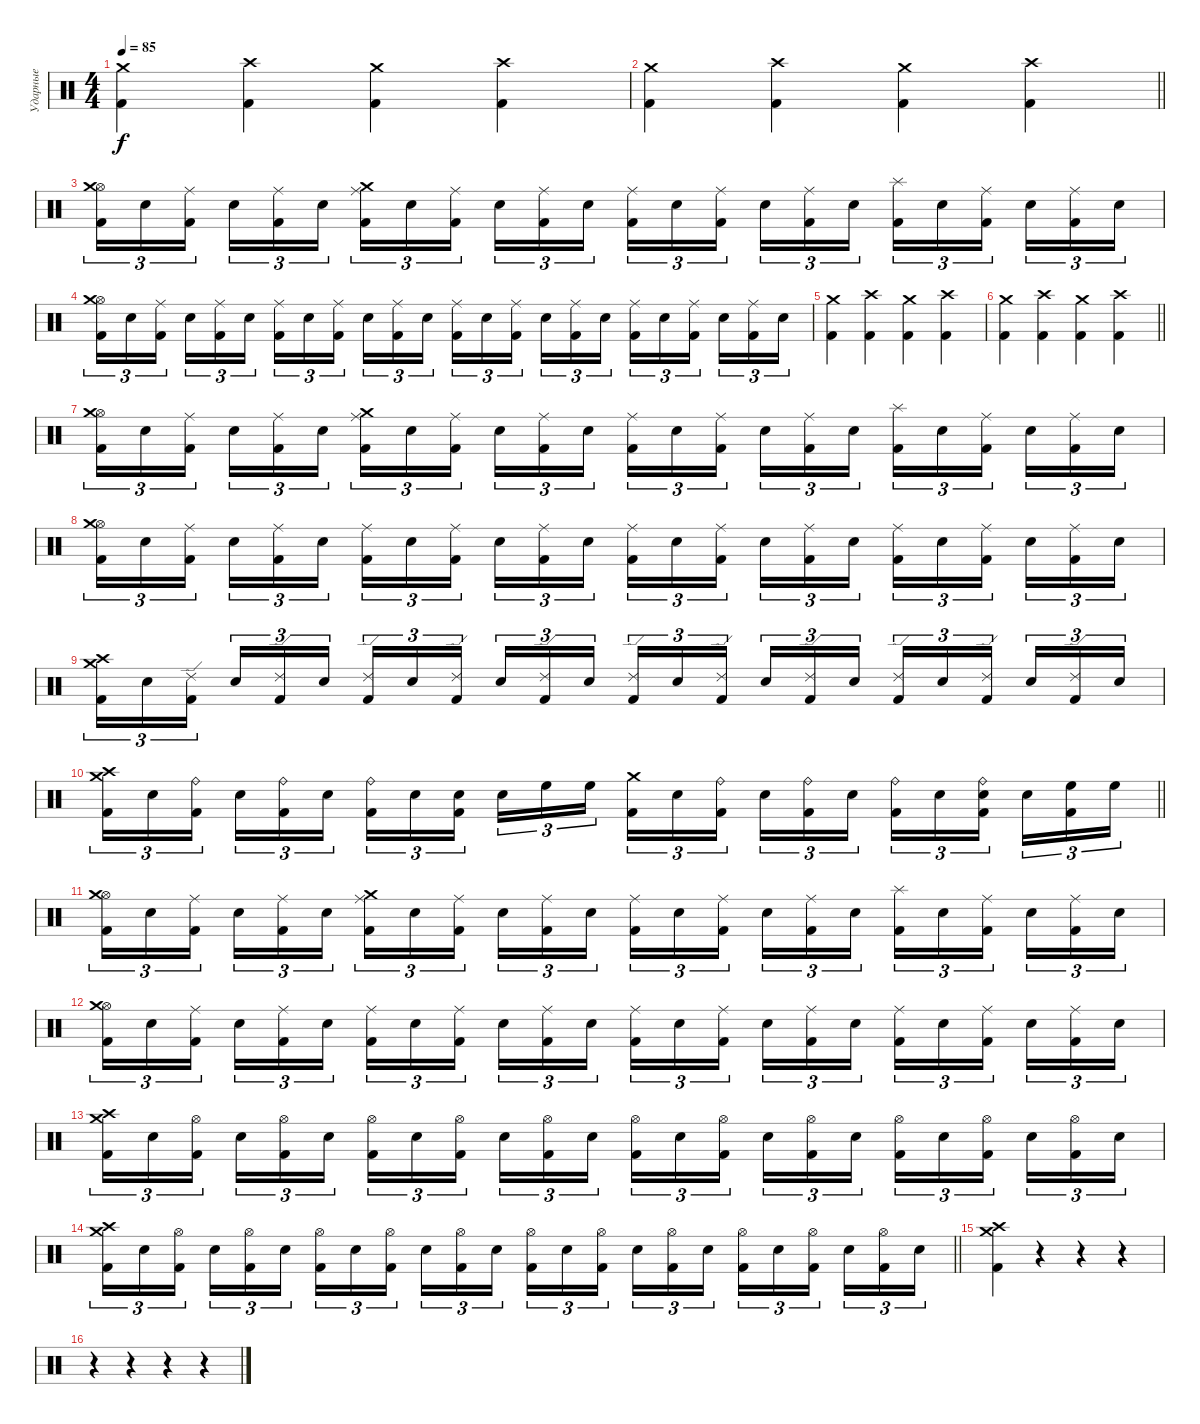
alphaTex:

\track ("Ударные" "Ударные") {mute instrument percussion}
\staff {score}
\articulation defaults
\ts (4 4)
\tempo 85
\clef neutral
\ks c
("Crash medium (hit)" "Kick (hit) 2").4{dy f} ("Crash high (hit)" "Kick (hit) 2").4 ("Crash medium (hit)" "Kick (hit) 2").4 ("Crash high (hit)" "Kick (hit) 2").4 |
\barLineRight lightlight
("Crash medium (hit)" "Kick (hit) 2").4 ("Crash high (hit)" "Kick (hit) 2").4 ("Crash medium (hit)" "Kick (hit) 2").4 ("Crash high (hit)" "Kick (hit) 2").4 |
("Hi-Hat (open)" "Crash medium (hit)" "Kick (hit) 2").16{tu (3 2)} "Electric Snare (hit)".16{tu (3 2)} ("Ride (middle)" "Kick (hit) 2").16{tu (3 2) beam splitsecondary} "Electric Snare (hit)".16{tu (3 2)} ("Ride (middle)" "Kick (hit) 2").16{tu (3 2)} "Electric Snare (hit)".16{tu (3 2)} ("Ride (middle)" "Crash medium (hit)" "Kick (hit) 2").16{tu (3 2)} "Electric Snare (hit)".16{tu (3 2)} ("Ride (middle)" "Kick (hit) 2").16{tu (3 2) beam splitsecondary} "Electric Snare (hit)".16{tu (3 2)} ("Ride (middle)" "Kick (hit) 2").16{tu (3 2)} "Electric Snare (hit)".16{tu (3 2)} ("Ride (middle)" "Kick (hit) 2").16{tu (3 2)} "Electric Snare (hit)".16{tu (3 2)} ("Ride (middle)" "Kick (hit) 2").16{tu (3 2) beam splitsecondary} "Electric Snare (hit)".16{tu (3 2)} ("Ride (middle)" "Kick (hit) 2").16{tu (3 2)} "Electric Snare (hit)".16{tu (3 2)} ("Splash (hit)" "Kick (hit) 2").16{tu (3 2)} "Electric Snare (hit)".16{tu (3 2)} ("Ride (middle)" "Kick (hit) 2").16{tu (3 2) beam splitsecondary} "Electric Snare (hit)".16{tu (3 2)} ("Ride (middle)" "Kick (hit) 2").16{tu (3 2)} "Electric Snare (hit)".16{tu (3 2)} |
("Hi-Hat (open)" "Crash medium (hit)" "Kick (hit) 2").16{tu (3 2)} "Electric Snare (hit)".16{tu (3 2)} ("Ride (middle)" "Kick (hit) 2").16{tu (3 2) beam splitsecondary} "Electric Snare (hit)".16{tu (3 2)} ("Ride (middle)" "Kick (hit) 2").16{tu (3 2)} "Electric Snare (hit)".16{tu (3 2)} ("Ride (middle)" "Kick (hit) 2").16{tu (3 2)} "Electric Snare (hit)".16{tu (3 2)} ("Ride (middle)" "Kick (hit) 2").16{tu (3 2) beam splitsecondary} "Electric Snare (hit)".16{tu (3 2)} ("Ride (middle)" "Kick (hit) 2").16{tu (3 2)} "Electric Snare (hit)".16{tu (3 2)} ("Ride (middle)" "Kick (hit) 2").16{tu (3 2)} "Electric Snare (hit)".16{tu (3 2)} ("Ride (middle)" "Kick (hit) 2").16{tu (3 2) beam splitsecondary} "Electric Snare (hit)".16{tu (3 2)} ("Ride (middle)" "Kick (hit) 2").16{tu (3 2)} "Electric Snare (hit)".16{tu (3 2)} ("Ride (middle)" "Kick (hit) 2").16{tu (3 2)} "Electric Snare (hit)".16{tu (3 2)} ("Ride (middle)" "Kick (hit) 2").16{tu (3 2) beam splitsecondary} "Electric Snare (hit)".16{tu (3 2)} ("Ride (middle)" "Kick (hit) 2").16{tu (3 2)} "Electric Snare (hit)".16{tu (3 2)} |
("Crash medium (hit)" "Kick (hit) 2").4 ("Crash high (hit)" "Kick (hit) 2").4 ("Crash medium (hit)" "Kick (hit) 2").4 ("Crash high (hit)" "Kick (hit) 2").4 |
\barLineRight lightlight
("Crash medium (hit)" "Kick (hit) 2").4 ("Crash high (hit)" "Kick (hit) 2").4 ("Crash medium (hit)" "Kick (hit) 2").4 ("Crash high (hit)" "Kick (hit) 2").4 |
("Hi-Hat (open)" "Crash medium (hit)" "Kick (hit) 2").16{tu (3 2)} "Electric Snare (hit)".16{tu (3 2)} ("Ride (middle)" "Kick (hit) 2").16{tu (3 2) beam splitsecondary} "Electric Snare (hit)".16{tu (3 2)} ("Ride (middle)" "Kick (hit) 2").16{tu (3 2)} "Electric Snare (hit)".16{tu (3 2)} ("Ride (middle)" "Crash medium (hit)" "Kick (hit) 2").16{tu (3 2)} "Electric Snare (hit)".16{tu (3 2)} ("Ride (middle)" "Kick (hit) 2").16{tu (3 2) beam splitsecondary} "Electric Snare (hit)".16{tu (3 2)} ("Ride (middle)" "Kick (hit) 2").16{tu (3 2)} "Electric Snare (hit)".16{tu (3 2)} ("Ride (middle)" "Kick (hit) 2").16{tu (3 2)} "Electric Snare (hit)".16{tu (3 2)} ("Ride (middle)" "Kick (hit) 2").16{tu (3 2) beam splitsecondary} "Electric Snare (hit)".16{tu (3 2)} ("Ride (middle)" "Kick (hit) 2").16{tu (3 2)} "Electric Snare (hit)".16{tu (3 2)} ("Splash (hit)" "Kick (hit) 2").16{tu (3 2)} "Electric Snare (hit)".16{tu (3 2)} ("Ride (middle)" "Kick (hit) 2").16{tu (3 2) beam splitsecondary} "Electric Snare (hit)".16{tu (3 2)} ("Ride (middle)" "Kick (hit) 2").16{tu (3 2)} "Electric Snare (hit)".16{tu (3 2)} |
("Hi-Hat (open)" "Crash medium (hit)" "Kick (hit) 2").16{tu (3 2)} "Electric Snare (hit)".16{tu (3 2)} ("Ride (middle)" "Kick (hit) 2").16{tu (3 2) beam splitsecondary} "Electric Snare (hit)".16{tu (3 2)} ("Ride (middle)" "Kick (hit) 2").16{tu (3 2)} "Electric Snare (hit)".16{tu (3 2)} ("Ride (middle)" "Kick (hit) 2").16{tu (3 2)} "Electric Snare (hit)".16{tu (3 2)} ("Ride (middle)" "Kick (hit) 2").16{tu (3 2) beam splitsecondary} "Electric Snare (hit)".16{tu (3 2)} ("Ride (middle)" "Kick (hit) 2").16{tu (3 2)} "Electric Snare (hit)".16{tu (3 2)} ("Ride (middle)" "Kick (hit) 2").16{tu (3 2)} "Electric Snare (hit)".16{tu (3 2)} ("Ride (middle)" "Kick (hit) 2").16{tu (3 2) beam splitsecondary} "Electric Snare (hit)".16{tu (3 2)} ("Ride (middle)" "Kick (hit) 2").16{tu (3 2)} "Electric Snare (hit)".16{tu (3 2)} ("Ride (middle)" "Kick (hit) 2").16{tu (3 2)} "Electric Snare (hit)".16{tu (3 2)} ("Ride (middle)" "Kick (hit) 2").16{tu (3 2) beam splitsecondary} "Electric Snare (hit)".16{tu (3 2)} ("Ride (middle)" "Kick (hit) 2").16{tu (3 2)} "Electric Snare (hit)".16{tu (3 2)} |
("Crash high (hit)" "Crash medium (hit)" "Kick (hit) 2").16{tu (3 2)} "Electric Snare (hit)".16{tu (3 2)} ("Ride (edge) 2" "Kick (hit) 2").16{tu (3 2) beam splitsecondary} "Electric Snare (hit)".16{tu (3 2)} ("Ride (edge) 2" "Kick (hit) 2").16{tu (3 2)} "Electric Snare (hit)".16{tu (3 2)} ("Ride (edge) 2" "Kick (hit) 2").16{tu (3 2)} "Electric Snare (hit)".16{tu (3 2)} ("Ride (edge) 2" "Kick (hit) 2").16{tu (3 2) beam splitsecondary} "Electric Snare (hit)".16{tu (3 2)} ("Ride (edge) 2" "Kick (hit) 2").16{tu (3 2)} "Electric Snare (hit)".16{tu (3 2)} ("Ride (edge) 2" "Kick (hit) 2").16{tu (3 2)} "Electric Snare (hit)".16{tu (3 2)} ("Ride (edge) 2" "Kick (hit) 2").16{tu (3 2) beam splitsecondary} "Electric Snare (hit)".16{tu (3 2)} ("Ride (edge) 2" "Kick (hit) 2").16{tu (3 2)} "Electric Snare (hit)".16{tu (3 2)} ("Ride (edge) 2" "Kick (hit) 2").16{tu (3 2)} "Electric Snare (hit)".16{tu (3 2)} ("Ride (edge) 2" "Kick (hit) 2").16{tu (3 2) beam splitsecondary} "Electric Snare (hit)".16{tu (3 2)} ("Ride (edge) 2" "Kick (hit) 2").16{tu (3 2)} "Electric Snare (hit)".16{tu (3 2)} |
\barLineRight lightlight
("Crash high (hit)" "Crash medium (hit)" "Kick (hit) 2").16{tu (3 2) volume 7} "Electric Snare (hit)".16{tu (3 2)} ("Ride (bell)" "Kick (hit) 2").16{tu (3 2) beam splitsecondary} "Electric Snare (hit)".16{tu (3 2)} ("Ride (bell)" "Kick (hit) 2").16{tu (3 2)} "Electric Snare (hit)".16{tu (3 2)} ("Ride (bell)" "Kick (hit) 2").16{tu (3 2)} "Electric Snare (hit)".16{tu (3 2)} ("Electric Snare (hit)" "Kick (hit) 2").16{tu (3 2) beam splitsecondary} "Electric Snare (hit)".16{tu (3 2)} "High Floor Tom (hit)".16{tu (3 2)} "High Floor Tom (hit)".16{tu (3 2)} ("Crash medium (hit)" "Kick (hit) 2").16{tu (3 2)} "Electric Snare (hit)".16{tu (3 2)} ("Ride (bell)" "Kick (hit) 2").16{tu (3 2) beam splitsecondary} "Electric Snare (hit)".16{tu (3 2)} ("Ride (bell)" "Kick (hit) 2").16{tu (3 2)} "Electric Snare (hit)".16{tu (3 2)} ("Ride (bell)" "Kick (hit) 2").16{tu (3 2)} "Electric Snare (hit)".16{tu (3 2)} ("Ride (bell)" "Electric Snare (hit)" "Kick (hit) 2").16{tu (3 2) beam splitsecondary} "Electric Snare (hit)".16{tu (3 2)} ("High Floor Tom (hit)" "Kick (hit) 2").16{tu (3 2)} "High Floor Tom (hit)".16{tu (3 2)} |
("Hi-Hat (open)" "Crash medium (hit)" "Kick (hit) 2").16{tu (3 2)} "Electric Snare (hit)".16{tu (3 2)} ("Ride (middle)" "Kick (hit) 2").16{tu (3 2) beam splitsecondary} "Electric Snare (hit)".16{tu (3 2)} ("Ride (middle)" "Kick (hit) 2").16{tu (3 2)} "Electric Snare (hit)".16{tu (3 2)} ("Ride (middle)" "Crash medium (hit)" "Kick (hit) 2").16{tu (3 2)} "Electric Snare (hit)".16{tu (3 2)} ("Ride (middle)" "Kick (hit) 2").16{tu (3 2) beam splitsecondary} "Electric Snare (hit)".16{tu (3 2)} ("Ride (middle)" "Kick (hit) 2").16{tu (3 2)} "Electric Snare (hit)".16{tu (3 2)} ("Ride (middle)" "Kick (hit) 2").16{tu (3 2)} "Electric Snare (hit)".16{tu (3 2)} ("Ride (middle)" "Kick (hit) 2").16{tu (3 2) beam splitsecondary} "Electric Snare (hit)".16{tu (3 2)} ("Ride (middle)" "Kick (hit) 2").16{tu (3 2)} "Electric Snare (hit)".16{tu (3 2)} ("Splash (hit)" "Kick (hit) 2").16{tu (3 2)} "Electric Snare (hit)".16{tu (3 2)} ("Ride (middle)" "Kick (hit) 2").16{tu (3 2) beam splitsecondary} "Electric Snare (hit)".16{tu (3 2)} ("Ride (middle)" "Kick (hit) 2").16{tu (3 2)} "Electric Snare (hit)".16{tu (3 2)} |
("Hi-Hat (open)" "Crash medium (hit)" "Kick (hit) 2").16{tu (3 2)} "Electric Snare (hit)".16{tu (3 2)} ("Ride (middle)" "Kick (hit) 2").16{tu (3 2) beam splitsecondary} "Electric Snare (hit)".16{tu (3 2)} ("Ride (middle)" "Kick (hit) 2").16{tu (3 2)} "Electric Snare (hit)".16{tu (3 2)} ("Ride (middle)" "Kick (hit) 2").16{tu (3 2)} "Electric Snare (hit)".16{tu (3 2)} ("Ride (middle)" "Kick (hit) 2").16{tu (3 2) beam splitsecondary} "Electric Snare (hit)".16{tu (3 2)} ("Ride (middle)" "Kick (hit) 2").16{tu (3 2)} "Electric Snare (hit)".16{tu (3 2)} ("Ride (middle)" "Kick (hit) 2").16{tu (3 2)} "Electric Snare (hit)".16{tu (3 2)} ("Ride (middle)" "Kick (hit) 2").16{tu (3 2) beam splitsecondary} "Electric Snare (hit)".16{tu (3 2)} ("Ride (middle)" "Kick (hit) 2").16{tu (3 2)} "Electric Snare (hit)".16{tu (3 2)} ("Ride (middle)" "Kick (hit) 2").16{tu (3 2)} "Electric Snare (hit)".16{tu (3 2)} ("Ride (middle)" "Kick (hit) 2").16{tu (3 2) beam splitsecondary} "Electric Snare (hit)".16{tu (3 2)} ("Ride (middle)" "Kick (hit) 2").16{tu (3 2)} "Electric Snare (hit)".16{tu (3 2)} |
("Crash high (hit)" "Crash medium (hit)" "Kick (hit) 2").16{tu (3 2)} "Electric Snare (hit)".16{tu (3 2)} ("Hi-Hat (open)" "Kick (hit) 2").16{tu (3 2) beam splitsecondary} "Electric Snare (hit)".16{tu (3 2)} ("Hi-Hat (open)" "Kick (hit) 2").16{tu (3 2)} "Electric Snare (hit)".16{tu (3 2)} ("Hi-Hat (open)" "Kick (hit) 2").16{tu (3 2)} "Electric Snare (hit)".16{tu (3 2)} ("Hi-Hat (open)" "Kick (hit) 2").16{tu (3 2) beam splitsecondary} "Electric Snare (hit)".16{tu (3 2)} ("Hi-Hat (open)" "Kick (hit) 2").16{tu (3 2)} "Electric Snare (hit)".16{tu (3 2)} ("Hi-Hat (open)" "Kick (hit) 2").16{tu (3 2)} "Electric Snare (hit)".16{tu (3 2)} ("Hi-Hat (open)" "Kick (hit) 2").16{tu (3 2) beam splitsecondary} "Electric Snare (hit)".16{tu (3 2)} ("Hi-Hat (open)" "Kick (hit) 2").16{tu (3 2)} "Electric Snare (hit)".16{tu (3 2)} ("Hi-Hat (open)" "Kick (hit) 2").16{tu (3 2)} "Electric Snare (hit)".16{tu (3 2)} ("Hi-Hat (open)" "Kick (hit) 2").16{tu (3 2) beam splitsecondary} "Electric Snare (hit)".16{tu (3 2)} ("Hi-Hat (open)" "Kick (hit) 2").16{tu (3 2)} "Electric Snare (hit)".16{tu (3 2)} |
\barLineRight lightlight
("Crash high (hit)" "Crash medium (hit)" "Kick (hit) 2").16{tu (3 2)} "Electric Snare (hit)".16{tu (3 2)} ("Hi-Hat (open)" "Kick (hit) 2").16{tu (3 2) beam splitsecondary} "Electric Snare (hit)".16{tu (3 2)} ("Hi-Hat (open)" "Kick (hit) 2").16{tu (3 2)} "Electric Snare (hit)".16{tu (3 2)} ("Hi-Hat (open)" "Kick (hit) 2").16{tu (3 2)} "Electric Snare (hit)".16{tu (3 2)} ("Hi-Hat (open)" "Kick (hit) 2").16{tu (3 2) beam splitsecondary} "Electric Snare (hit)".16{tu (3 2)} ("Hi-Hat (open)" "Kick (hit) 2").16{tu (3 2)} "Electric Snare (hit)".16{tu (3 2)} ("Hi-Hat (open)" "Kick (hit) 2").16{tu (3 2)} "Electric Snare (hit)".16{tu (3 2)} ("Hi-Hat (open)" "Kick (hit) 2").16{tu (3 2) beam splitsecondary} "Electric Snare (hit)".16{tu (3 2)} ("Hi-Hat (open)" "Kick (hit) 2").16{tu (3 2)} "Electric Snare (hit)".16{tu (3 2)} ("Hi-Hat (open)" "Kick (hit) 2").16{tu (3 2)} "Electric Snare (hit)".16{tu (3 2)} ("Hi-Hat (open)" "Kick (hit) 2").16{tu (3 2) beam splitsecondary} "Electric Snare (hit)".16{tu (3 2)} ("Hi-Hat (open)" "Kick (hit) 2").16{tu (3 2)} "Electric Snare (hit)".16{tu (3 2)} |
("Crash medium (hit)" "Crash high (hit)" "Kick (hit) 2").4 r.4 r.4 r.4 |
r.4 r.4 r.4 r.4
